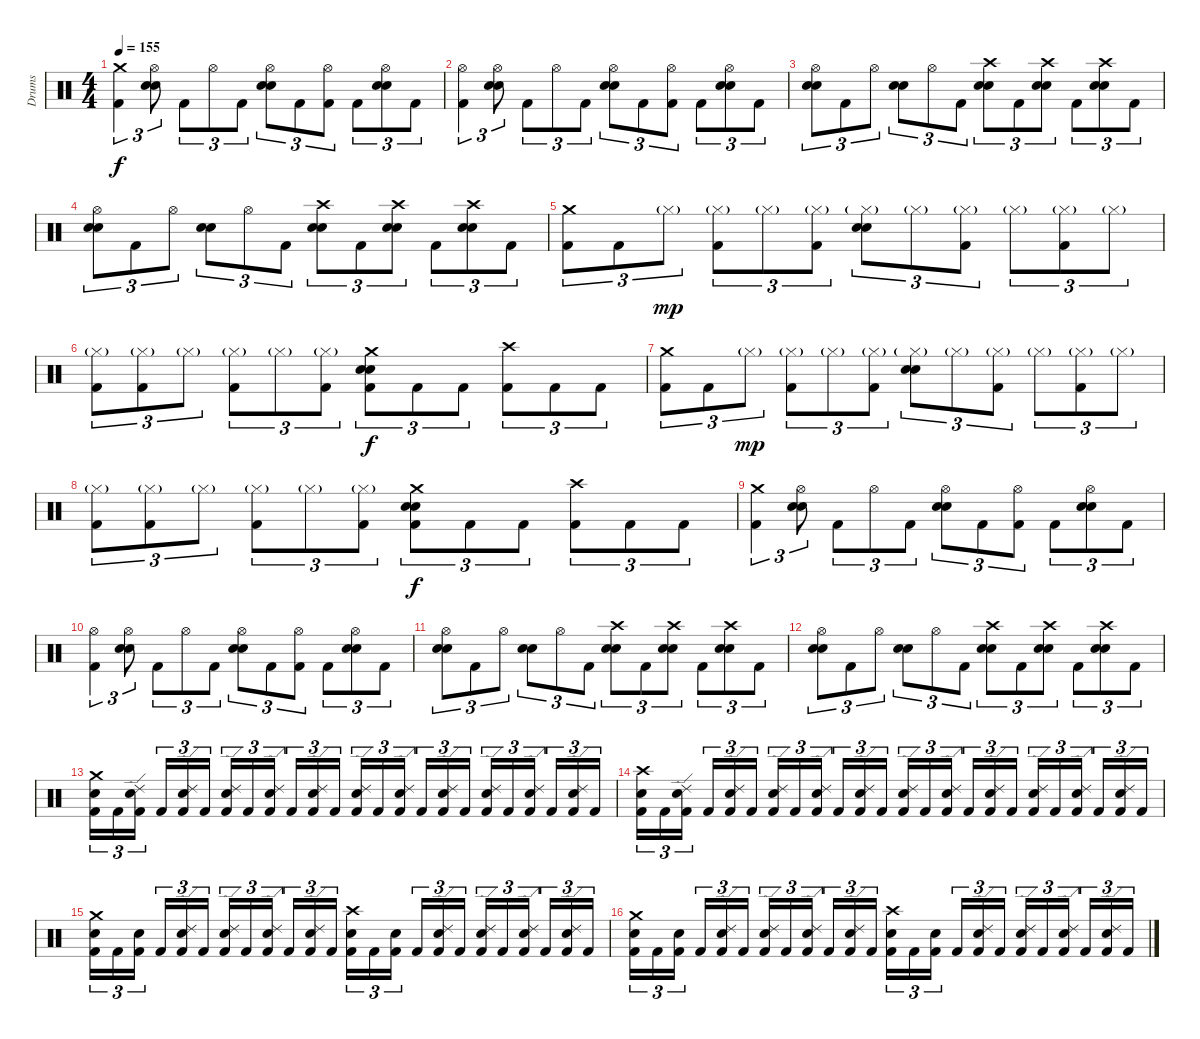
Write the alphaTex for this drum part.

\track ("Drums" "Drums") {instrument percussion}
\staff {score}
\articulation defaults
\ts (4 4)
\tempo 155
\clef neutral
\ks c
("Crash medium (hit)" "Kick (hit) 2").4{tu (3 2) dy f} ("Hi-Hat (open)" "Electric Snare (hit)" "Electric Snare (hit)").8{tu (3 2)} "Kick (hit) 2".8{tu (3 2)} "Hi-Hat (open)".8{tu (3 2)} "Kick (hit) 2".8{tu (3 2)} ("Hi-Hat (open)" "Electric Snare (hit)" "Electric Snare (hit)").8{tu (3 2)} "Kick (hit) 2".8{tu (3 2)} ("Hi-Hat (open)" "Kick (hit) 2").8{tu (3 2)} "Kick (hit) 2".8{tu (3 2)} ("Hi-Hat (open)" "Electric Snare (hit)" "Electric Snare (hit)").8{tu (3 2)} "Kick (hit) 2".8{tu (3 2)} |
("Hi-Hat (open)" "Kick (hit) 2").4{tu (3 2)} ("Hi-Hat (open)" "Electric Snare (hit)" "Electric Snare (hit)").8{tu (3 2)} "Kick (hit) 2".8{tu (3 2)} "Hi-Hat (open)".8{tu (3 2)} "Kick (hit) 2".8{tu (3 2)} ("Hi-Hat (open)" "Electric Snare (hit)" "Electric Snare (hit)").8{tu (3 2)} "Kick (hit) 2".8{tu (3 2)} ("Hi-Hat (open)" "Kick (hit) 2").8{tu (3 2)} "Kick (hit) 2".8{tu (3 2)} ("Hi-Hat (open)" "Electric Snare (hit)" "Electric Snare (hit)").8{tu (3 2)} "Kick (hit) 2".8{tu (3 2)} |
("Hi-Hat (open)" "Electric Snare (hit)" "Electric Snare (hit)").8{tu (3 2)} "Kick (hit) 2".8{tu (3 2)} "Hi-Hat (open)".8{tu (3 2)} ("Electric Snare (hit)" "Electric Snare (hit)").8{tu (3 2)} "Hi-Hat (open)".8{tu (3 2)} "Kick (hit) 2".8{tu (3 2)} ("Crash high (hit)" "Electric Snare (hit)" "Electric Snare (hit)").8{tu (3 2)} "Kick (hit) 2".8{tu (3 2)} ("Crash high (hit)" "Electric Snare (hit)" "Electric Snare (hit)").8{tu (3 2)} "Kick (hit) 2".8{tu (3 2)} ("Crash high (hit)" "Electric Snare (hit)" "Electric Snare (hit)").8{tu (3 2)} "Kick (hit) 2".8{tu (3 2)} |
("Hi-Hat (open)" "Electric Snare (hit)" "Electric Snare (hit)").8{tu (3 2)} "Kick (hit) 2".8{tu (3 2)} "Hi-Hat (open)".8{tu (3 2)} ("Electric Snare (hit)" "Electric Snare (hit)").8{tu (3 2)} "Hi-Hat (open)".8{tu (3 2)} "Kick (hit) 2".8{tu (3 2)} ("Crash high (hit)" "Electric Snare (hit)" "Electric Snare (hit)").8{tu (3 2)} "Kick (hit) 2".8{tu (3 2)} ("Crash high (hit)" "Electric Snare (hit)" "Electric Snare (hit)").8{tu (3 2)} "Kick (hit) 2".8{tu (3 2)} ("Crash high (hit)" "Electric Snare (hit)" "Electric Snare (hit)").8{tu (3 2)} "Kick (hit) 2".8{tu (3 2)} |
("Crash medium (hit)" "Kick (hit) 2").8{tu (3 2)} "Kick (hit) 2".8{tu (3 2)} "Hi-Hat (closed)"{g}.8{tu (3 2) dy mp} ("Hi-Hat (closed)"{g} "Kick (hit) 2").8{tu (3 2)} "Hi-Hat (closed)"{g}.8{tu (3 2)} ("Hi-Hat (closed)"{g} "Kick (hit) 2").8{tu (3 2)} ("Hi-Hat (closed)"{g} "Electric Snare (hit)" "Electric Snare (hit)").8{tu (3 2)} "Hi-Hat (closed)"{g}.8{tu (3 2)} ("Hi-Hat (closed)"{g} "Kick (hit) 2").8{tu (3 2)} "Hi-Hat (closed)"{g}.8{tu (3 2)} ("Hi-Hat (closed)"{g} "Kick (hit) 2").8{tu (3 2)} "Hi-Hat (closed)"{g}.8{tu (3 2)} |
("Hi-Hat (closed)"{g} "Kick (hit) 2").8{tu (3 2)} ("Hi-Hat (closed)"{g} "Kick (hit) 2").8{tu (3 2)} "Hi-Hat (closed)"{g}.8{tu (3 2)} ("Hi-Hat (closed)"{g} "Kick (hit) 2").8{tu (3 2)} "Hi-Hat (closed)"{g}.8{tu (3 2)} ("Hi-Hat (closed)"{g} "Kick (hit) 2").8{tu (3 2)} ("Crash medium (hit)" "Electric Snare (hit)" "Electric Snare (hit)" "Kick (hit) 2").8{tu (3 2) dy f} "Kick (hit) 2".8{tu (3 2)} "Kick (hit) 2".8{tu (3 2)} ("Crash high (hit)" "Kick (hit) 2").8{tu (3 2)} "Kick (hit) 2".8{tu (3 2)} "Kick (hit) 2".8{tu (3 2)} |
("Crash medium (hit)" "Kick (hit) 2").8{tu (3 2)} "Kick (hit) 2".8{tu (3 2)} "Hi-Hat (closed)"{g}.8{tu (3 2) dy mp} ("Hi-Hat (closed)"{g} "Kick (hit) 2").8{tu (3 2)} "Hi-Hat (closed)"{g}.8{tu (3 2)} ("Hi-Hat (closed)"{g} "Kick (hit) 2").8{tu (3 2)} ("Hi-Hat (closed)"{g} "Electric Snare (hit)" "Electric Snare (hit)").8{tu (3 2)} "Hi-Hat (closed)"{g}.8{tu (3 2)} ("Hi-Hat (closed)"{g} "Kick (hit) 2").8{tu (3 2)} "Hi-Hat (closed)"{g}.8{tu (3 2)} ("Hi-Hat (closed)"{g} "Kick (hit) 2").8{tu (3 2)} "Hi-Hat (closed)"{g}.8{tu (3 2)} |
("Hi-Hat (closed)"{g} "Kick (hit) 2").8{tu (3 2)} ("Hi-Hat (closed)"{g} "Kick (hit) 2").8{tu (3 2)} "Hi-Hat (closed)"{g}.8{tu (3 2)} ("Hi-Hat (closed)"{g} "Kick (hit) 2").8{tu (3 2)} "Hi-Hat (closed)"{g}.8{tu (3 2)} ("Hi-Hat (closed)"{g} "Kick (hit) 2").8{tu (3 2)} ("Crash medium (hit)" "Electric Snare (hit)" "Electric Snare (hit)" "Kick (hit) 2").8{tu (3 2) dy f} "Kick (hit) 2".8{tu (3 2)} "Kick (hit) 2".8{tu (3 2)} ("Crash high (hit)" "Kick (hit) 2").8{tu (3 2)} "Kick (hit) 2".8{tu (3 2)} "Kick (hit) 2".8{tu (3 2)} |
("Crash medium (hit)" "Kick (hit) 2").4{tu (3 2)} ("Hi-Hat (open)" "Electric Snare (hit)" "Electric Snare (hit)").8{tu (3 2)} "Kick (hit) 2".8{tu (3 2)} "Hi-Hat (open)".8{tu (3 2)} "Kick (hit) 2".8{tu (3 2)} ("Hi-Hat (open)" "Electric Snare (hit)" "Electric Snare (hit)").8{tu (3 2)} "Kick (hit) 2".8{tu (3 2)} ("Hi-Hat (open)" "Kick (hit) 2").8{tu (3 2)} "Kick (hit) 2".8{tu (3 2)} ("Hi-Hat (open)" "Electric Snare (hit)" "Electric Snare (hit)").8{tu (3 2)} "Kick (hit) 2".8{tu (3 2)} |
("Hi-Hat (open)" "Kick (hit) 2").4{tu (3 2)} ("Hi-Hat (open)" "Electric Snare (hit)" "Electric Snare (hit)").8{tu (3 2)} "Kick (hit) 2".8{tu (3 2)} "Hi-Hat (open)".8{tu (3 2)} "Kick (hit) 2".8{tu (3 2)} ("Hi-Hat (open)" "Electric Snare (hit)" "Electric Snare (hit)").8{tu (3 2)} "Kick (hit) 2".8{tu (3 2)} ("Hi-Hat (open)" "Kick (hit) 2").8{tu (3 2)} "Kick (hit) 2".8{tu (3 2)} ("Hi-Hat (open)" "Electric Snare (hit)" "Electric Snare (hit)").8{tu (3 2)} "Kick (hit) 2".8{tu (3 2)} |
("Hi-Hat (open)" "Electric Snare (hit)" "Electric Snare (hit)").8{tu (3 2)} "Kick (hit) 2".8{tu (3 2)} "Hi-Hat (open)".8{tu (3 2)} ("Electric Snare (hit)" "Electric Snare (hit)").8{tu (3 2)} "Hi-Hat (open)".8{tu (3 2)} "Kick (hit) 2".8{tu (3 2)} ("Crash high (hit)" "Electric Snare (hit)" "Electric Snare (hit)").8{tu (3 2)} "Kick (hit) 2".8{tu (3 2)} ("Crash high (hit)" "Electric Snare (hit)" "Electric Snare (hit)").8{tu (3 2)} "Kick (hit) 2".8{tu (3 2)} ("Crash high (hit)" "Electric Snare (hit)" "Electric Snare (hit)").8{tu (3 2)} "Kick (hit) 2".8{tu (3 2)} |
("Hi-Hat (open)" "Electric Snare (hit)" "Electric Snare (hit)").8{tu (3 2)} "Kick (hit) 2".8{tu (3 2)} "Hi-Hat (open)".8{tu (3 2)} ("Electric Snare (hit)" "Electric Snare (hit)").8{tu (3 2)} "Hi-Hat (open)".8{tu (3 2)} "Kick (hit) 2".8{tu (3 2)} ("Crash high (hit)" "Electric Snare (hit)" "Electric Snare (hit)").8{tu (3 2)} "Kick (hit) 2".8{tu (3 2)} ("Crash high (hit)" "Electric Snare (hit)" "Electric Snare (hit)").8{tu (3 2)} "Kick (hit) 2".8{tu (3 2)} ("Crash high (hit)" "Electric Snare (hit)" "Electric Snare (hit)").8{tu (3 2)} "Kick (hit) 2".8{tu (3 2)} |
("Crash medium (hit)" "Electric Snare (hit)" "Kick (hit) 2").16{tu (3 2)} "Kick (hit) 2".16{tu (3 2)} ("Ride (edge) 2" "Electric Snare (hit)" "Kick (hit) 2").16{tu (3 2) beam splitsecondary} "Kick (hit) 2".16{tu (3 2)} ("Ride (edge) 2" "Electric Snare (hit)" "Kick (hit) 2").16{tu (3 2)} "Kick (hit) 2".16{tu (3 2)} ("Ride (edge) 2" "Electric Snare (hit)" "Kick (hit) 2").16{tu (3 2)} "Kick (hit) 2".16{tu (3 2)} ("Ride (edge) 2" "Electric Snare (hit)" "Kick (hit) 2").16{tu (3 2) beam splitsecondary} "Kick (hit) 2".16{tu (3 2)} ("Ride (edge) 2" "Electric Snare (hit)" "Kick (hit) 2").16{tu (3 2)} "Kick (hit) 2".16{tu (3 2)} ("Ride (edge) 2" "Electric Snare (hit)" "Kick (hit) 2").16{tu (3 2)} "Kick (hit) 2".16{tu (3 2)} ("Ride (edge) 2" "Electric Snare (hit)" "Kick (hit) 2").16{tu (3 2) beam splitsecondary} "Kick (hit) 2".16{tu (3 2)} ("Ride (edge) 2" "Electric Snare (hit)" "Kick (hit) 2").16{tu (3 2)} "Kick (hit) 2".16{tu (3 2)} ("Ride (edge) 2" "Electric Snare (hit)" "Kick (hit) 2").16{tu (3 2)} "Kick (hit) 2".16{tu (3 2)} ("Ride (edge) 2" "Electric Snare (hit)" "Kick (hit) 2").16{tu (3 2) beam splitsecondary} "Kick (hit) 2".16{tu (3 2)} ("Ride (edge) 2" "Electric Snare (hit)" "Kick (hit) 2").16{tu (3 2)} "Kick (hit) 2".16{tu (3 2)} |
("Crash high (hit)" "Electric Snare (hit)" "Kick (hit) 2").16{tu (3 2)} "Kick (hit) 2".16{tu (3 2)} ("Ride (edge) 2" "Electric Snare (hit)" "Kick (hit) 2").16{tu (3 2) beam splitsecondary} "Kick (hit) 2".16{tu (3 2)} ("Ride (edge) 2" "Electric Snare (hit)" "Kick (hit) 2").16{tu (3 2)} "Kick (hit) 2".16{tu (3 2)} ("Ride (edge) 2" "Electric Snare (hit)" "Kick (hit) 2").16{tu (3 2)} "Kick (hit) 2".16{tu (3 2)} ("Ride (edge) 2" "Electric Snare (hit)" "Kick (hit) 2").16{tu (3 2) beam splitsecondary} "Kick (hit) 2".16{tu (3 2)} ("Ride (edge) 2" "Electric Snare (hit)" "Kick (hit) 2").16{tu (3 2)} "Kick (hit) 2".16{tu (3 2)} ("Ride (edge) 2" "Electric Snare (hit)" "Kick (hit) 2").16{tu (3 2)} "Kick (hit) 2".16{tu (3 2)} ("Ride (edge) 2" "Electric Snare (hit)" "Kick (hit) 2").16{tu (3 2) beam splitsecondary} "Kick (hit) 2".16{tu (3 2)} ("Ride (edge) 2" "Electric Snare (hit)" "Kick (hit) 2").16{tu (3 2)} "Kick (hit) 2".16{tu (3 2)} ("Ride (edge) 2" "Electric Snare (hit)" "Kick (hit) 2").16{tu (3 2)} "Kick (hit) 2".16{tu (3 2)} ("Ride (edge) 2" "Electric Snare (hit)" "Kick (hit) 2").16{tu (3 2) beam splitsecondary} "Kick (hit) 2".16{tu (3 2)} ("Ride (edge) 2" "Electric Snare (hit)" "Kick (hit) 2").16{tu (3 2)} "Kick (hit) 2".16{tu (3 2)} |
("Crash medium (hit)" "Electric Snare (hit)" "Kick (hit) 2").16{tu (3 2)} "Kick (hit) 2".16{tu (3 2)} ("Electric Snare (hit)" "Kick (hit) 2").16{tu (3 2) beam splitsecondary} "Kick (hit) 2".16{tu (3 2)} ("Ride (edge) 2" "Electric Snare (hit)" "Kick (hit) 2").16{tu (3 2)} "Kick (hit) 2".16{tu (3 2)} ("Ride (edge) 2" "Electric Snare (hit)" "Kick (hit) 2").16{tu (3 2)} "Kick (hit) 2".16{tu (3 2)} ("Ride (edge) 2" "Electric Snare (hit)" "Kick (hit) 2").16{tu (3 2) beam splitsecondary} "Kick (hit) 2".16{tu (3 2)} ("Ride (edge) 2" "Electric Snare (hit)" "Kick (hit) 2").16{tu (3 2)} "Kick (hit) 2".16{tu (3 2)} ("Crash high (hit)" "Electric Snare (hit)" "Kick (hit) 2").16{tu (3 2)} "Kick (hit) 2".16{tu (3 2)} ("Electric Snare (hit)" "Kick (hit) 2").16{tu (3 2) beam splitsecondary} "Kick (hit) 2".16{tu (3 2)} ("Ride (edge) 2" "Electric Snare (hit)" "Kick (hit) 2").16{tu (3 2)} "Kick (hit) 2".16{tu (3 2)} ("Ride (edge) 2" "Electric Snare (hit)" "Kick (hit) 2").16{tu (3 2)} "Kick (hit) 2".16{tu (3 2)} ("Ride (edge) 2" "Electric Snare (hit)" "Kick (hit) 2").16{tu (3 2) beam splitsecondary} "Kick (hit) 2".16{tu (3 2)} ("Ride (edge) 2" "Electric Snare (hit)" "Kick (hit) 2").16{tu (3 2)} "Kick (hit) 2".16{tu (3 2)} |
("Crash medium (hit)" "Electric Snare (hit)" "Kick (hit) 2").16{tu (3 2)} "Kick (hit) 2".16{tu (3 2)} ("Electric Snare (hit)" "Kick (hit) 2").16{tu (3 2) beam splitsecondary} "Kick (hit) 2".16{tu (3 2)} ("Ride (edge) 2" "Electric Snare (hit)" "Kick (hit) 2").16{tu (3 2)} "Kick (hit) 2".16{tu (3 2)} ("Ride (edge) 2" "Electric Snare (hit)" "Kick (hit) 2").16{tu (3 2)} "Kick (hit) 2".16{tu (3 2)} ("Ride (edge) 2" "Electric Snare (hit)" "Kick (hit) 2").16{tu (3 2) beam splitsecondary} "Kick (hit) 2".16{tu (3 2)} ("Ride (edge) 2" "Electric Snare (hit)" "Kick (hit) 2").16{tu (3 2)} "Kick (hit) 2".16{tu (3 2)} ("Crash high (hit)" "Electric Snare (hit)" "Kick (hit) 2").16{tu (3 2)} "Kick (hit) 2".16{tu (3 2)} ("Electric Snare (hit)" "Kick (hit) 2").16{tu (3 2) beam splitsecondary} "Kick (hit) 2".16{tu (3 2)} ("Ride (edge) 2" "Electric Snare (hit)" "Kick (hit) 2").16{tu (3 2)} "Kick (hit) 2".16{tu (3 2)} ("Ride (edge) 2" "Electric Snare (hit)" "Kick (hit) 2").16{tu (3 2)} "Kick (hit) 2".16{tu (3 2)} ("Ride (edge) 2" "Electric Snare (hit)" "Kick (hit) 2").16{tu (3 2) beam splitsecondary} "Kick (hit) 2".16{tu (3 2)} ("Ride (edge) 2" "Electric Snare (hit)" "Kick (hit) 2").16{tu (3 2)} "Kick (hit) 2".16{tu (3 2)}
